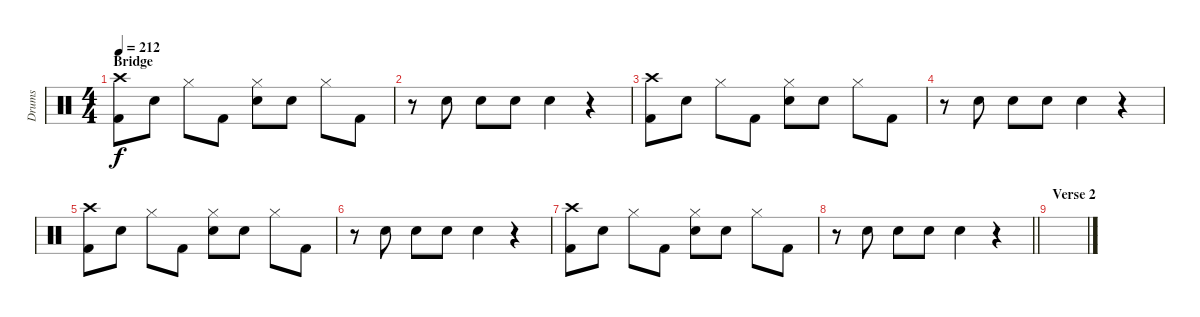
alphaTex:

\track ("Drums" "Drums") {instrument percussion}
\staff {score}
\articulation defaults
\ts (4 4)
\section ("" "Bridge")
\tempo 212
\clef neutral
\ks c
("Crash high (hit)" "Kick (hit) 2").8{dy f} "Snare (hit) 2".8 "Hi-Hat (closed)".8 "Kick (hit) 2".8 ("Hi-Hat (closed)" "Snare (hit) 2").8 "Snare (hit) 2".8 "Hi-Hat (closed)".8 "Kick (hit) 2".8 |
r.8 "Snare (hit) 2".8 "Snare (hit) 2".8 "Snare (hit) 2".8 "Snare (hit) 2".4 r.4 |
("Crash high (hit)" "Kick (hit) 2").8 "Snare (hit) 2".8 "Hi-Hat (closed)".8 "Kick (hit) 2".8 ("Hi-Hat (closed)" "Snare (hit) 2").8 "Snare (hit) 2".8 "Hi-Hat (closed)".8 "Kick (hit) 2".8 |
r.8 "Snare (hit) 2".8 "Snare (hit) 2".8 "Snare (hit) 2".8 "Snare (hit) 2".4 r.4 |
("Crash high (hit)" "Kick (hit) 2").8 "Snare (hit) 2".8 "Hi-Hat (closed)".8 "Kick (hit) 2".8 ("Hi-Hat (closed)" "Snare (hit) 2").8 "Snare (hit) 2".8 "Hi-Hat (closed)".8 "Kick (hit) 2".8 |
r.8 "Snare (hit) 2".8 "Snare (hit) 2".8 "Snare (hit) 2".8 "Snare (hit) 2".4 r.4 |
("Crash high (hit)" "Kick (hit) 2").8 "Snare (hit) 2".8 "Hi-Hat (closed)".8 "Kick (hit) 2".8 ("Hi-Hat (closed)" "Snare (hit) 2").8 "Snare (hit) 2".8 "Hi-Hat (closed)".8 "Kick (hit) 2".8 |
\barLineRight lightlight
r.8 "Snare (hit) 2".8 "Snare (hit) 2".8 "Snare (hit) 2".8 "Snare (hit) 2".4 r.4 |
\section ("" "Verse 2")
